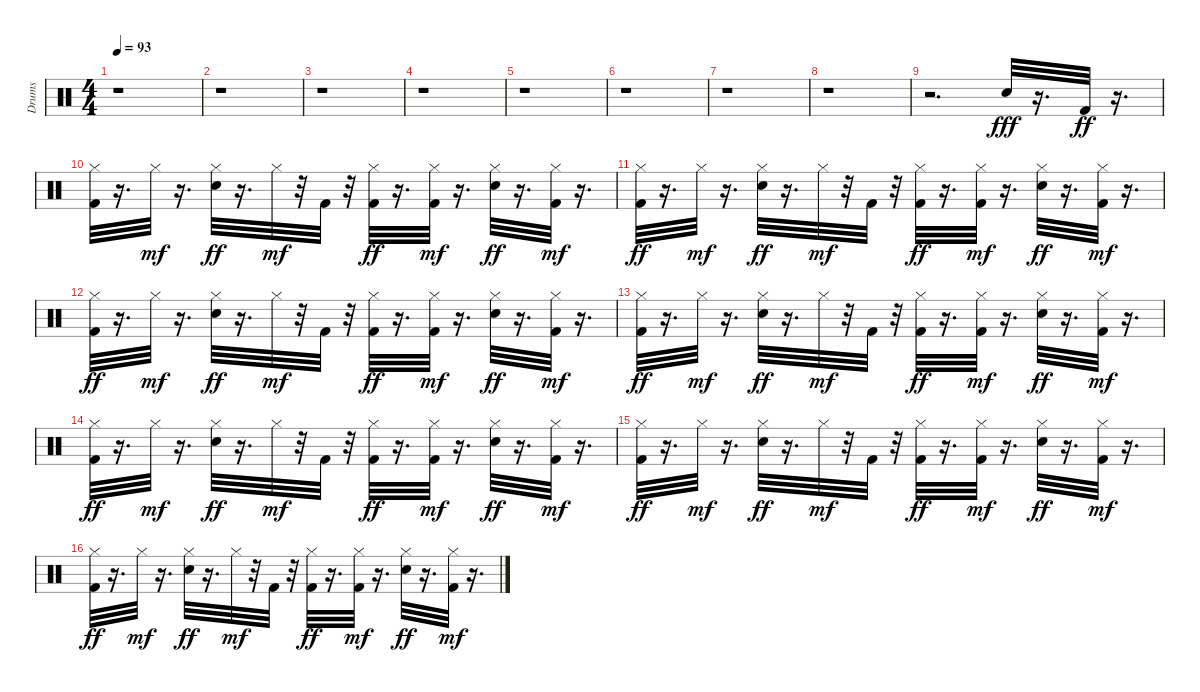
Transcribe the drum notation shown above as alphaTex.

\track ("Drums" "Drums") {instrument percussion}
\staff {score}
\articulation defaults
\ts (4 4)
\tempo 93
\clef neutral
\ks c
r.1{dy fff} |
r.1 |
r.1 |
r.1 |
r.1 |
r.1 |
r.1 |
r.1 |
r.2{d} "Snare (hit) 2".32{volume 10} r.16{d} "Kick (hit) 2".32{dy ff} r.16{d} |
("Kick (hit) 2" "Hi-Hat (closed)").32 r.16{d} "Hi-Hat (closed)".32{dy mf} r.16{d} ("Snare (hit) 2" "Hi-Hat (closed)").32{dy ff} r.16{d} "Hi-Hat (closed)".32{dy mf} r.32 "Kick (hit) 2".32 r.32 ("Kick (hit) 2" "Hi-Hat (closed)").32{dy ff} r.16{d} ("Kick (hit) 2" "Hi-Hat (closed)").32{dy mf} r.16{d} ("Snare (hit) 2" "Hi-Hat (closed)").32{dy ff} r.16{d} ("Kick (hit) 2" "Hi-Hat (closed)").32{dy mf} r.16{d} |
("Kick (hit) 2" "Hi-Hat (closed)").32{dy ff} r.16{d} "Hi-Hat (closed)".32{dy mf} r.16{d} ("Snare (hit) 2" "Hi-Hat (closed)").32{dy ff} r.16{d} "Hi-Hat (closed)".32{dy mf} r.32 "Kick (hit) 2".32 r.32 ("Kick (hit) 2" "Hi-Hat (closed)").32{dy ff} r.16{d} ("Kick (hit) 2" "Hi-Hat (closed)").32{dy mf} r.16{d} ("Snare (hit) 2" "Hi-Hat (closed)").32{dy ff} r.16{d} ("Kick (hit) 2" "Hi-Hat (closed)").32{dy mf} r.16{d} |
("Kick (hit) 2" "Hi-Hat (closed)").32{dy ff} r.16{d} "Hi-Hat (closed)".32{dy mf} r.16{d} ("Snare (hit) 2" "Hi-Hat (closed)").32{dy ff} r.16{d} "Hi-Hat (closed)".32{dy mf} r.32 "Kick (hit) 2".32 r.32 ("Kick (hit) 2" "Hi-Hat (closed)").32{dy ff} r.16{d} ("Kick (hit) 2" "Hi-Hat (closed)").32{dy mf} r.16{d} ("Snare (hit) 2" "Hi-Hat (closed)").32{dy ff} r.16{d} ("Kick (hit) 2" "Hi-Hat (closed)").32{dy mf} r.16{d} |
("Kick (hit) 2" "Hi-Hat (closed)").32{dy ff} r.16{d} "Hi-Hat (closed)".32{dy mf} r.16{d} ("Snare (hit) 2" "Hi-Hat (closed)").32{dy ff} r.16{d} "Hi-Hat (closed)".32{dy mf} r.32 "Kick (hit) 2".32 r.32 ("Kick (hit) 2" "Hi-Hat (closed)").32{dy ff} r.16{d} ("Kick (hit) 2" "Hi-Hat (closed)").32{dy mf} r.16{d} ("Snare (hit) 2" "Hi-Hat (closed)").32{dy ff} r.16{d} ("Kick (hit) 2" "Hi-Hat (closed)").32{dy mf} r.16{d} |
("Kick (hit) 2" "Hi-Hat (closed)").32{dy ff} r.16{d} "Hi-Hat (closed)".32{dy mf} r.16{d} ("Snare (hit) 2" "Hi-Hat (closed)").32{dy ff} r.16{d} "Hi-Hat (closed)".32{dy mf} r.32 "Kick (hit) 2".32 r.32 ("Kick (hit) 2" "Hi-Hat (closed)").32{dy ff} r.16{d} ("Kick (hit) 2" "Hi-Hat (closed)").32{dy mf} r.16{d} ("Snare (hit) 2" "Hi-Hat (closed)").32{dy ff} r.16{d} ("Kick (hit) 2" "Hi-Hat (closed)").32{dy mf} r.16{d} |
("Kick (hit) 2" "Hi-Hat (closed)").32{dy ff} r.16{d} "Hi-Hat (closed)".32{dy mf} r.16{d} ("Snare (hit) 2" "Hi-Hat (closed)").32{dy ff} r.16{d} "Hi-Hat (closed)".32{dy mf} r.32 "Kick (hit) 2".32 r.32 ("Kick (hit) 2" "Hi-Hat (closed)").32{dy ff} r.16{d} ("Kick (hit) 2" "Hi-Hat (closed)").32{dy mf} r.16{d} ("Snare (hit) 2" "Hi-Hat (closed)").32{dy ff} r.16{d} ("Kick (hit) 2" "Hi-Hat (closed)").32{dy mf} r.16{d} |
("Kick (hit) 2" "Hi-Hat (closed)").32{dy ff} r.16{d} "Hi-Hat (closed)".32{dy mf} r.16{d} ("Snare (hit) 2" "Hi-Hat (closed)").32{dy ff} r.16{d} "Hi-Hat (closed)".32{dy mf} r.32 "Kick (hit) 2".32 r.32 ("Kick (hit) 2" "Hi-Hat (closed)").32{dy ff} r.16{d} ("Kick (hit) 2" "Hi-Hat (closed)").32{dy mf} r.16{d} ("Snare (hit) 2" "Hi-Hat (closed)").32{dy ff} r.16{d} ("Kick (hit) 2" "Hi-Hat (closed)").32{dy mf} r.16{d}
